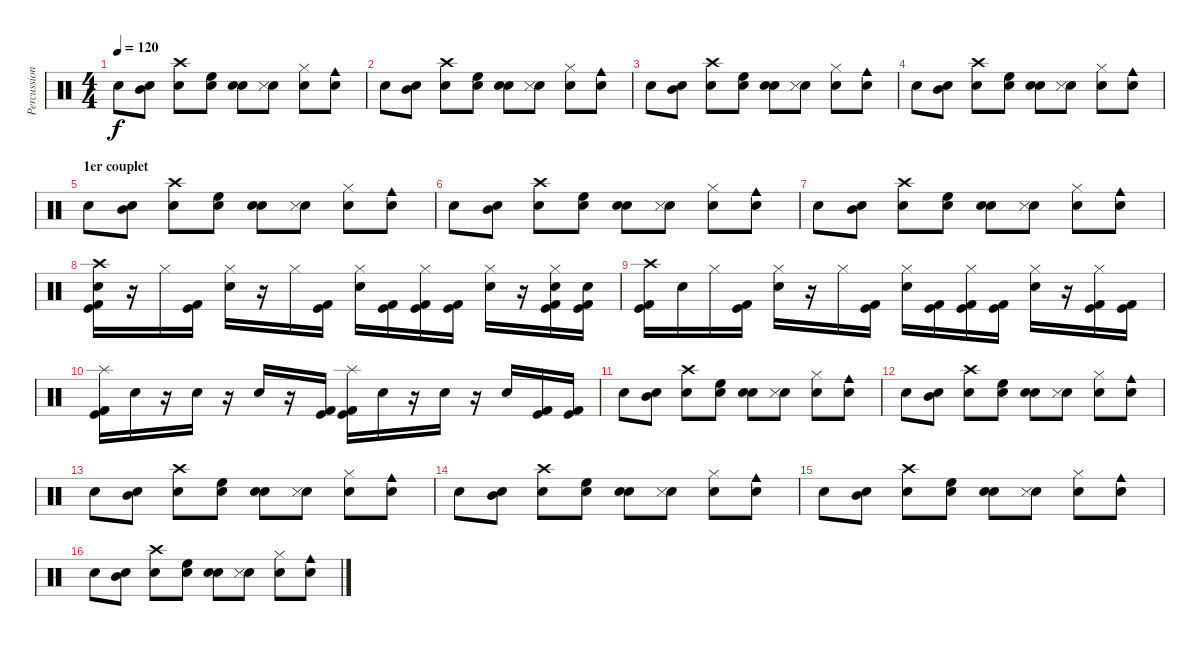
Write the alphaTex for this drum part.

\track ("Percussions" "Percussion") {instrument percussion}
\staff {score}
\articulation defaults
\ts (4 4)
\tempo 120
\clef neutral
\ks c "Snare (hit) 2".8{dy f}
("Snare (hit) 2" "Mid Tom (hit)").8 ("Snare (hit) 2" "Crash high (hit)").8 ("Snare (hit) 2" "High Floor Tom (hit)").8 ("Snare (hit) 2" "Snare (hit) 2").8 ("Snare (hit) 2" "Snare (side stick) 3").8 ("Snare (hit) 2" "Hi-Hat (closed)").8 ("Snare (hit) 2" "Cowbell medium (hit)").8 |
"Snare (hit) 2".8 ("Snare (hit) 2" "Mid Tom (hit)").8 ("Snare (hit) 2" "Crash high (hit)").8 ("Snare (hit) 2" "High Floor Tom (hit)").8 ("Snare (hit) 2" "Snare (hit) 2").8 ("Snare (hit) 2" "Snare (side stick) 3").8 ("Snare (hit) 2" "Hi-Hat (closed)").8 ("Snare (hit) 2" "Cowbell medium (hit)").8 |
"Snare (hit) 2".8 ("Snare (hit) 2" "Mid Tom (hit)").8 ("Snare (hit) 2" "Crash high (hit)").8 ("Snare (hit) 2" "High Floor Tom (hit)").8 ("Snare (hit) 2" "Snare (hit) 2").8 ("Snare (hit) 2" "Snare (side stick) 3").8 ("Snare (hit) 2" "Hi-Hat (closed)").8 ("Snare (hit) 2" "Cowbell medium (hit)").8 |
"Snare (hit) 2".8 ("Snare (hit) 2" "Mid Tom (hit)").8 ("Snare (hit) 2" "Crash high (hit)").8 ("Snare (hit) 2" "High Floor Tom (hit)").8 ("Snare (hit) 2" "Snare (hit) 2").8 ("Snare (hit) 2" "Snare (side stick) 3").8 ("Snare (hit) 2" "Hi-Hat (closed)").8 ("Snare (hit) 2" "Cowbell medium (hit)").8 |
\section ("" "1er couplet")
"Snare (hit) 2".8 ("Snare (hit) 2" "Mid Tom (hit)").8 ("Snare (hit) 2" "Crash high (hit)").8 ("Snare (hit) 2" "High Floor Tom (hit)").8 ("Snare (hit) 2" "Snare (hit) 2").8 ("Snare (hit) 2" "Snare (side stick) 3").8 ("Snare (hit) 2" "Hi-Hat (closed)").8 ("Snare (hit) 2" "Cowbell medium (hit)").8 |
"Snare (hit) 2".8 ("Snare (hit) 2" "Mid Tom (hit)").8 ("Snare (hit) 2" "Crash high (hit)").8 ("Snare (hit) 2" "High Floor Tom (hit)").8 ("Snare (hit) 2" "Snare (hit) 2").8 ("Snare (hit) 2" "Snare (side stick) 3").8 ("Snare (hit) 2" "Hi-Hat (closed)").8 ("Snare (hit) 2" "Cowbell medium (hit)").8 |
"Snare (hit) 2".8 ("Snare (hit) 2" "Mid Tom (hit)").8 ("Snare (hit) 2" "Crash high (hit)").8 ("Snare (hit) 2" "High Floor Tom (hit)").8 ("Snare (hit) 2" "Snare (hit) 2").8 ("Snare (hit) 2" "Snare (side stick) 3").8 ("Snare (hit) 2" "Hi-Hat (closed)").8 ("Snare (hit) 2" "Cowbell medium (hit)").8 |
("Crash high (hit)" "Electric Snare (hit)" "Kick (hit) 2" "Kick (hit)").16 r.16 "Hi-Hat (closed)".16 ("Kick (hit)" "Kick (hit) 2").16 ("Hi-Hat (closed)" "Electric Snare (hit)").16 r.16 "Hi-Hat (closed)".16 ("Kick (hit) 2" "Kick (hit)").16 ("Hi-Hat (closed)" "Electric Snare (hit)").16 ("Kick (hit) 2" "Kick (hit)").16 ("Hi-Hat (closed)" "Kick (hit) 2" "Kick (hit)").16 ("Kick (hit) 2" "Kick (hit)").16 ("Hi-Hat (closed)" "Electric Snare (hit)").16 r.16 ("Hi-Hat (closed)" "Electric Snare (hit)" "Kick (hit) 2" "Kick (hit)").16 ("Electric Snare (hit)" "Kick (hit) 2" "Kick (hit)").16 |
("Crash high (hit)" "Kick (hit) 2" "Kick (hit)").16 "Electric Snare (hit)".16 "Hi-Hat (closed)".16 ("Kick (hit)" "Kick (hit) 2").16 ("Hi-Hat (closed)" "Electric Snare (hit)").16 r.16 "Hi-Hat (closed)".16 ("Kick (hit) 2" "Kick (hit)").16 ("Hi-Hat (closed)" "Electric Snare (hit)").16 ("Kick (hit) 2" "Kick (hit)").16 ("Hi-Hat (closed)" "Kick (hit) 2" "Kick (hit)").16 ("Kick (hit) 2" "Kick (hit)").16 ("Hi-Hat (closed)" "Electric Snare (hit)").16 r.16 ("Hi-Hat (closed)" "Kick (hit) 2" "Kick (hit)").16 ("Kick (hit) 2" "Kick (hit)").16 |
("Splash (hit)" "Kick (hit) 2" "Kick (hit)").16 "Electric Snare (hit)".16 r.16 "Electric Snare (hit)".16 r.16 "Electric Snare (hit)".16 r.16 ("Kick (hit) 2" "Kick (hit)").16 ("Splash (hit)" "Kick (hit) 2" "Kick (hit)").16 "Electric Snare (hit)".16 r.16 "Electric Snare (hit)".16 r.16 "Electric Snare (hit)".16 ("Kick (hit) 2" "Kick (hit)").16 ("Kick (hit) 2" "Kick (hit)").16 |
"Snare (hit) 2".8 ("Snare (hit) 2" "Mid Tom (hit)").8 ("Snare (hit) 2" "Crash high (hit)").8 ("Snare (hit) 2" "High Floor Tom (hit)").8 ("Snare (hit) 2" "Snare (hit) 2").8 ("Snare (hit) 2" "Snare (side stick) 3").8 ("Snare (hit) 2" "Hi-Hat (closed)").8 ("Snare (hit) 2" "Cowbell medium (hit)").8 |
"Snare (hit) 2".8 ("Snare (hit) 2" "Mid Tom (hit)").8 ("Snare (hit) 2" "Crash high (hit)").8 ("Snare (hit) 2" "High Floor Tom (hit)").8 ("Snare (hit) 2" "Snare (hit) 2").8 ("Snare (hit) 2" "Snare (side stick) 3").8 ("Snare (hit) 2" "Hi-Hat (closed)").8 ("Snare (hit) 2" "Cowbell medium (hit)").8 |
"Snare (hit) 2".8 ("Snare (hit) 2" "Mid Tom (hit)").8 ("Snare (hit) 2" "Crash high (hit)").8 ("Snare (hit) 2" "High Floor Tom (hit)").8 ("Snare (hit) 2" "Snare (hit) 2").8 ("Snare (hit) 2" "Snare (side stick) 3").8 ("Snare (hit) 2" "Hi-Hat (closed)").8 ("Snare (hit) 2" "Cowbell medium (hit)").8 |
"Snare (hit) 2".8 ("Snare (hit) 2" "Mid Tom (hit)").8 ("Snare (hit) 2" "Crash high (hit)").8 ("Snare (hit) 2" "High Floor Tom (hit)").8 ("Snare (hit) 2" "Snare (hit) 2").8 ("Snare (hit) 2" "Snare (side stick) 3").8 ("Snare (hit) 2" "Hi-Hat (closed)").8 ("Snare (hit) 2" "Cowbell medium (hit)").8 |
"Snare (hit) 2".8 ("Snare (hit) 2" "Mid Tom (hit)").8 ("Snare (hit) 2" "Crash high (hit)").8 ("Snare (hit) 2" "High Floor Tom (hit)").8 ("Snare (hit) 2" "Snare (hit) 2").8 ("Snare (hit) 2" "Snare (side stick) 3").8 ("Snare (hit) 2" "Hi-Hat (closed)").8 ("Snare (hit) 2" "Cowbell medium (hit)").8 |
"Snare (hit) 2".8 ("Snare (hit) 2" "Mid Tom (hit)").8 ("Snare (hit) 2" "Crash high (hit)").8 ("Snare (hit) 2" "High Floor Tom (hit)").8 ("Snare (hit) 2" "Snare (hit) 2").8 ("Snare (hit) 2" "Snare (side stick) 3").8 ("Snare (hit) 2" "Hi-Hat (closed)").8 ("Snare (hit) 2" "Cowbell medium (hit)").8
